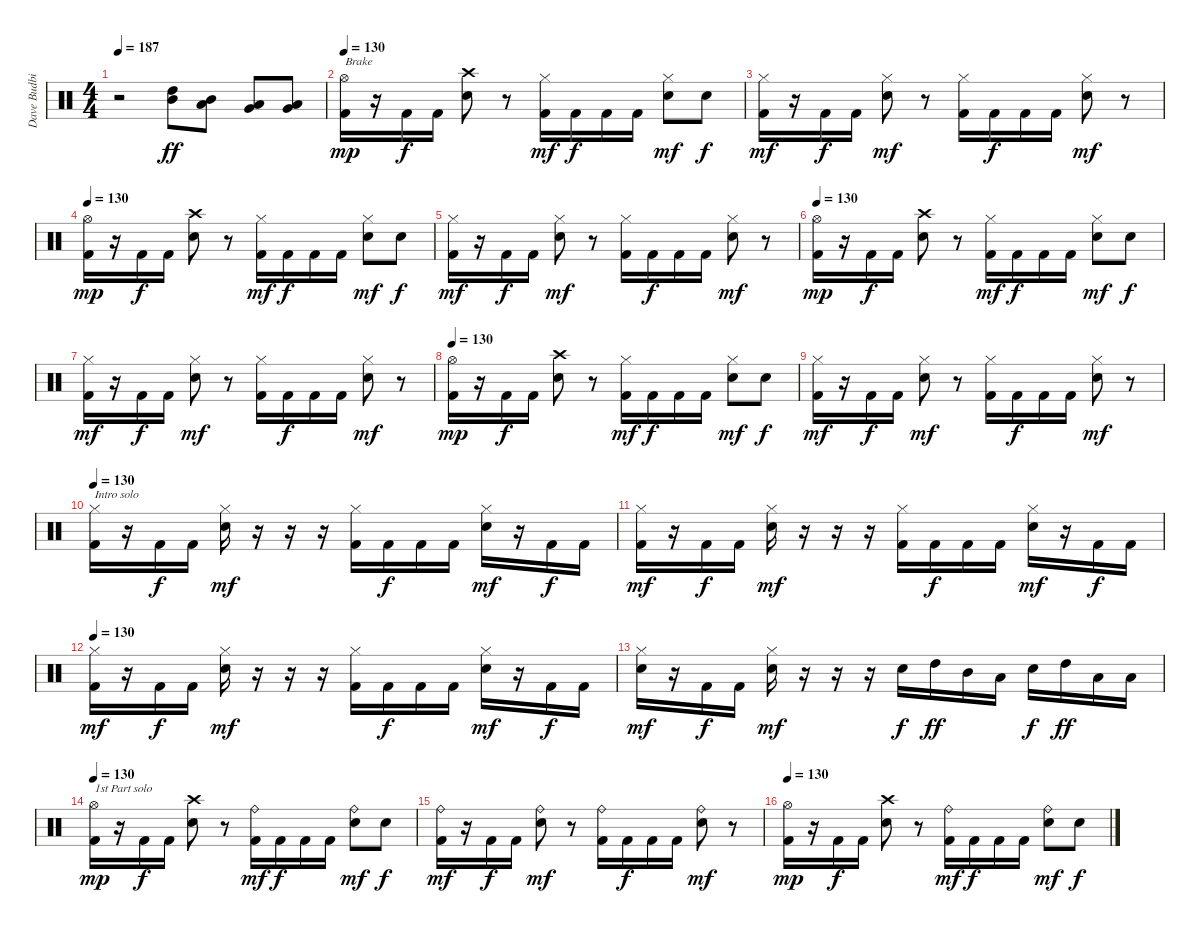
\track ("Dave Budbill" "Dave Budbi") {instrument percussion}
\staff {score}
\articulation defaults
\ts (4 4)
\tempo 187
\clef neutral
\ks c
r.2{dy ff} ("Mid Tom (hit)" "High Tom (hit)").8 ("Low Tom (hit)" "Mid Tom (hit)").8 ("Very Low Tom (hit)" "Low Tom (hit)").8 ("Low Floor Tom (hit)" "Very Low Tom (hit)").8 |
\tempo 130
("Hi-Hat (open)" "Kick (hit) 2").16{txt "Brake" dy mp} r.16 "Kick (hit) 2".16{dy f} "Kick (hit) 2".16 ("Crash high (hit)" "Snare (hit) 2").8 r.8 ("Hi-Hat (closed)" "Kick (hit) 2").16{dy mf} "Kick (hit) 2".16{dy f} "Kick (hit) 2".16 "Kick (hit) 2".16 ("Hi-Hat (closed)" "Snare (hit) 2").8{dy mf} "Snare (hit) 2".8{dy f} |
("Hi-Hat (closed)" "Kick (hit) 2").16{dy mf} r.16 "Kick (hit) 2".16{dy f} "Kick (hit) 2".16 ("Hi-Hat (closed)" "Snare (hit) 2").8{dy mf} r.8 ("Hi-Hat (closed)" "Kick (hit) 2").16 "Kick (hit) 2".16{dy f} "Kick (hit) 2".16 "Kick (hit) 2".16 ("Hi-Hat (closed)" "Snare (hit) 2").8{dy mf} r.8 |
\tempo 130
("Hi-Hat (open)" "Kick (hit) 2").16{dy mp} r.16 "Kick (hit) 2".16{dy f} "Kick (hit) 2".16 ("Crash high (hit)" "Snare (hit) 2").8 r.8 ("Hi-Hat (closed)" "Kick (hit) 2").16{dy mf} "Kick (hit) 2".16{dy f} "Kick (hit) 2".16 "Kick (hit) 2".16 ("Hi-Hat (closed)" "Snare (hit) 2").8{dy mf} "Snare (hit) 2".8{dy f} |
("Hi-Hat (closed)" "Kick (hit) 2").16{dy mf} r.16 "Kick (hit) 2".16{dy f} "Kick (hit) 2".16 ("Hi-Hat (closed)" "Snare (hit) 2").8{dy mf} r.8 ("Hi-Hat (closed)" "Kick (hit) 2").16 "Kick (hit) 2".16{dy f} "Kick (hit) 2".16 "Kick (hit) 2".16 ("Hi-Hat (closed)" "Snare (hit) 2").8{dy mf} r.8 |
\tempo 130
("Hi-Hat (open)" "Kick (hit) 2").16{dy mp} r.16 "Kick (hit) 2".16{dy f} "Kick (hit) 2".16 ("Crash high (hit)" "Snare (hit) 2").8 r.8 ("Hi-Hat (closed)" "Kick (hit) 2").16{dy mf} "Kick (hit) 2".16{dy f} "Kick (hit) 2".16 "Kick (hit) 2".16 ("Hi-Hat (closed)" "Snare (hit) 2").8{dy mf} "Snare (hit) 2".8{dy f} |
("Hi-Hat (closed)" "Kick (hit) 2").16{dy mf} r.16 "Kick (hit) 2".16{dy f} "Kick (hit) 2".16 ("Hi-Hat (closed)" "Snare (hit) 2").8{dy mf} r.8 ("Hi-Hat (closed)" "Kick (hit) 2").16 "Kick (hit) 2".16{dy f} "Kick (hit) 2".16 "Kick (hit) 2".16 ("Hi-Hat (closed)" "Snare (hit) 2").8{dy mf} r.8 |
\tempo 130
("Hi-Hat (open)" "Kick (hit) 2").16{dy mp} r.16 "Kick (hit) 2".16{dy f} "Kick (hit) 2".16 ("Crash high (hit)" "Snare (hit) 2").8 r.8 ("Hi-Hat (closed)" "Kick (hit) 2").16{dy mf} "Kick (hit) 2".16{dy f} "Kick (hit) 2".16 "Kick (hit) 2".16 ("Hi-Hat (closed)" "Snare (hit) 2").8{dy mf} "Snare (hit) 2".8{dy f} |
("Hi-Hat (closed)" "Kick (hit) 2").16{dy mf} r.16 "Kick (hit) 2".16{dy f} "Kick (hit) 2".16 ("Hi-Hat (closed)" "Snare (hit) 2").8{dy mf} r.8 ("Hi-Hat (closed)" "Kick (hit) 2").16 "Kick (hit) 2".16{dy f} "Kick (hit) 2".16 "Kick (hit) 2".16 ("Hi-Hat (closed)" "Snare (hit) 2").8{dy mf} r.8 |
\tempo 130
("Hi-Hat (closed)" "Kick (hit) 2").16{txt "Intro solo"} r.16 "Kick (hit) 2".16{dy f} "Kick (hit) 2".16 ("Hi-Hat (closed)" "Snare (hit) 2").16{dy mf} r.16 r.16 r.16 ("Hi-Hat (closed)" "Kick (hit) 2").16 "Kick (hit) 2".16{dy f} "Kick (hit) 2".16 "Kick (hit) 2".16 ("Hi-Hat (closed)" "Snare (hit) 2").16{dy mf} r.16 "Kick (hit) 2".16{dy f} "Kick (hit) 2".16 |
("Hi-Hat (closed)" "Kick (hit) 2").16{dy mf} r.16 "Kick (hit) 2".16{dy f} "Kick (hit) 2".16 ("Hi-Hat (closed)" "Snare (hit) 2").16{dy mf} r.16 r.16 r.16 ("Hi-Hat (closed)" "Kick (hit) 2").16 "Kick (hit) 2".16{dy f} "Kick (hit) 2".16 "Kick (hit) 2".16 ("Hi-Hat (closed)" "Snare (hit) 2").16{dy mf} r.16 "Kick (hit) 2".16{dy f} "Kick (hit) 2".16 |
\tempo 130
("Hi-Hat (closed)" "Kick (hit) 2").16{dy mf} r.16 "Kick (hit) 2".16{dy f} "Kick (hit) 2".16 ("Hi-Hat (closed)" "Snare (hit) 2").16{dy mf} r.16 r.16 r.16 ("Hi-Hat (closed)" "Kick (hit) 2").16 "Kick (hit) 2".16{dy f} "Kick (hit) 2".16 "Kick (hit) 2".16 ("Hi-Hat (closed)" "Snare (hit) 2").16{dy mf} r.16 "Kick (hit) 2".16{dy f} "Kick (hit) 2".16 |
("Hi-Hat (closed)" "Snare (hit) 2").16{dy mf} r.16 "Kick (hit) 2".16{dy f} "Kick (hit) 2".16 ("Hi-Hat (closed)" "Snare (hit) 2").16{dy mf} r.16 r.16 r.16 "Snare (hit) 2".16{dy f} "High Tom (hit)".16{dy ff} "Mid Tom (hit)".16 "Low Tom (hit)".16 "Snare (hit) 2".16{dy f} "High Tom (hit)".16{dy ff} "Low Tom (hit)".16 "Low Tom (hit)".16 |
\tempo 130
("Hi-Hat (open)" "Kick (hit) 2").16{txt "1st Part solo" dy mp} r.16 "Kick (hit) 2".16{dy f} "Kick (hit) 2".16 ("Crash high (hit)" "Snare (hit) 2").8 r.8 ("Ride (bell)" "Kick (hit) 2").16{dy mf} "Kick (hit) 2".16{dy f} "Kick (hit) 2".16 "Kick (hit) 2".16 ("Ride (bell)" "Snare (hit) 2").8{dy mf} "Snare (hit) 2".8{dy f} |
("Ride (bell)" "Kick (hit) 2").16{dy mf} r.16 "Kick (hit) 2".16{dy f} "Kick (hit) 2".16 ("Ride (bell)" "Snare (hit) 2").8{dy mf} r.8 ("Ride (bell)" "Kick (hit) 2").16 "Kick (hit) 2".16{dy f} "Kick (hit) 2".16 "Kick (hit) 2".16 ("Ride (bell)" "Snare (hit) 2").8{dy mf} r.8 |
\tempo 130
("Hi-Hat (open)" "Kick (hit) 2").16{dy mp} r.16 "Kick (hit) 2".16{dy f} "Kick (hit) 2".16 ("Crash high (hit)" "Snare (hit) 2").8 r.8 ("Ride (bell)" "Kick (hit) 2").16{dy mf} "Kick (hit) 2".16{dy f} "Kick (hit) 2".16 "Kick (hit) 2".16 ("Ride (bell)" "Snare (hit) 2").8{dy mf} "Snare (hit) 2".8{dy f}
